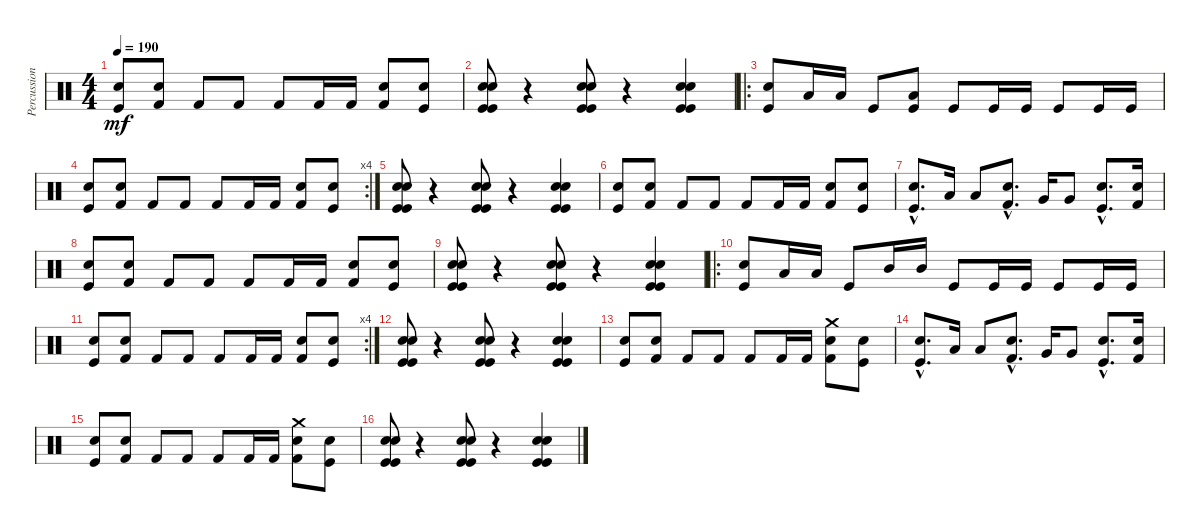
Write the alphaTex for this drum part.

\track ("Percussion" "Percussion") {instrument percussion}
\staff {score}
\articulation defaults
\ts (4 4)
\tempo 190
\clef neutral
\ks c
("Snare (hit) 2" "Kick (hit)").8{dy mf} ("Electric Snare (hit)" "Kick (hit) 2").8 "Kick (hit) 2".8 "Kick (hit) 2".8 "Kick (hit) 2".8 "Kick (hit) 2".16 "Kick (hit) 2".16 ("Electric Snare (hit)" "Kick (hit) 2").8 ("Snare (hit) 2" "Kick (hit)").8 |
("Electric Snare (hit)" "Electric Snare (hit)" "Kick (hit)" "Kick (hit)").8 r.4 ("Electric Snare (hit)" "Electric Snare (hit)" "Kick (hit)" "Kick (hit)").8 r.4 ("Electric Snare (hit)" "Electric Snare (hit)" "Kick (hit)" "Kick (hit)").4 |
\ro
("Electric Snare (hit)" "Kick (hit)").8 "Low Tom (hit)".16 "Low Tom (hit)".16 "Kick (hit)".8 ("Kick (hit)" "Low Tom (hit)").8 "Kick (hit)".8 "Kick (hit)".16 "Kick (hit)".16 "Kick (hit)".8 "Kick (hit)".16 "Kick (hit)".16 |
\rc 4
("Snare (hit) 2" "Kick (hit)").8 ("Electric Snare (hit)" "Kick (hit) 2").8 "Kick (hit) 2".8 "Kick (hit) 2".8 "Kick (hit) 2".8 "Kick (hit) 2".16 "Kick (hit) 2".16 ("Electric Snare (hit)" "Kick (hit) 2").8 ("Snare (hit) 2" "Kick (hit)").8 |
("Electric Snare (hit)" "Electric Snare (hit)" "Kick (hit)" "Kick (hit)").8 r.4 ("Electric Snare (hit)" "Electric Snare (hit)" "Kick (hit)" "Kick (hit)").8 r.4 ("Electric Snare (hit)" "Electric Snare (hit)" "Kick (hit)" "Kick (hit)").4 |
("Snare (hit) 2" "Kick (hit)").8 ("Electric Snare (hit)" "Kick (hit) 2").8 "Kick (hit) 2".8 "Kick (hit) 2".8 "Kick (hit) 2".8 "Kick (hit) 2".16 "Kick (hit) 2".16 ("Electric Snare (hit)" "Kick (hit) 2").8 ("Snare (hit) 2" "Kick (hit)").8 |
("Electric Snare (hit)"{hac} "Kick (hit)"{hac}).8{d} "Low Tom (hit)".16 "Low Tom (hit)".8 ("Electric Snare (hit)"{hac} "Kick (hit) 2"{hac}).8{d} "Very Low Tom (hit)".16 "Very Low Tom (hit)".8 ("Snare (hit) 2"{hac} "Kick (hit)"{hac}).8{d} ("Electric Snare (hit)" "Kick (hit) 2").16 |
("Snare (hit) 2" "Kick (hit)").8 ("Electric Snare (hit)" "Kick (hit) 2").8 "Kick (hit) 2".8 "Kick (hit) 2".8 "Kick (hit) 2".8 "Kick (hit) 2".16 "Kick (hit) 2".16 ("Electric Snare (hit)" "Kick (hit) 2").8 ("Snare (hit) 2" "Kick (hit)").8 |
("Electric Snare (hit)" "Electric Snare (hit)" "Kick (hit)" "Kick (hit)").8 r.4 ("Electric Snare (hit)" "Electric Snare (hit)" "Kick (hit)" "Kick (hit)").8 r.4 ("Electric Snare (hit)" "Electric Snare (hit)" "Kick (hit)" "Kick (hit)").4 |
\ro
("Electric Snare (hit)" "Kick (hit)").8 "Low Tom (hit)".16 "Low Tom (hit)".16 "Kick (hit)".8 "Mid Tom (hit)".16 "Mid Tom (hit)".16 "Kick (hit)".8 "Kick (hit)".16 "Kick (hit)".16 "Kick (hit)".8 "Kick (hit)".16 "Kick (hit)".16 |
\rc 4
("Snare (hit) 2" "Kick (hit)").8 ("Electric Snare (hit)" "Kick (hit) 2").8 "Kick (hit) 2".8 "Kick (hit) 2".8 "Kick (hit) 2".8 "Kick (hit) 2".16 "Kick (hit) 2".16 ("Electric Snare (hit)" "Kick (hit) 2").8 ("Snare (hit) 2" "Kick (hit)").8 |
("Electric Snare (hit)" "Electric Snare (hit)" "Kick (hit)" "Kick (hit)").8 r.4 ("Electric Snare (hit)" "Electric Snare (hit)" "Kick (hit)" "Kick (hit)").8 r.4 ("Electric Snare (hit)" "Electric Snare (hit)" "Kick (hit)" "Kick (hit)").4 |
("Snare (hit) 2" "Kick (hit)").8 ("Electric Snare (hit)" "Kick (hit) 2").8 "Kick (hit) 2".8 "Kick (hit) 2".8 "Kick (hit) 2".8 "Kick (hit) 2".16 "Kick (hit) 2".16 ("Electric Snare (hit)" "Kick (hit) 2" "Crash medium (hit)").8 ("Snare (hit) 2" "Kick (hit)").8 |
("Electric Snare (hit)"{hac} "Kick (hit)"{hac}).8{d} "Low Tom (hit)".16 "Low Tom (hit)".8 ("Electric Snare (hit)"{hac} "Kick (hit) 2"{hac}).8{d} "Very Low Tom (hit)".16 "Very Low Tom (hit)".8 ("Snare (hit) 2"{hac} "Kick (hit)"{hac}).8{d} ("Electric Snare (hit)" "Kick (hit) 2").16 |
("Snare (hit) 2" "Kick (hit)").8 ("Electric Snare (hit)" "Kick (hit) 2").8 "Kick (hit) 2".8 "Kick (hit) 2".8 "Kick (hit) 2".8 "Kick (hit) 2".16 "Kick (hit) 2".16 ("Electric Snare (hit)" "Kick (hit) 2" "Crash medium (hit)").8 ("Snare (hit) 2" "Kick (hit)").8 |
("Electric Snare (hit)" "Electric Snare (hit)" "Kick (hit)" "Kick (hit)").8 r.4 ("Electric Snare (hit)" "Electric Snare (hit)" "Kick (hit)" "Kick (hit)").8 r.4 ("Electric Snare (hit)" "Electric Snare (hit)" "Kick (hit)" "Kick (hit)").4
